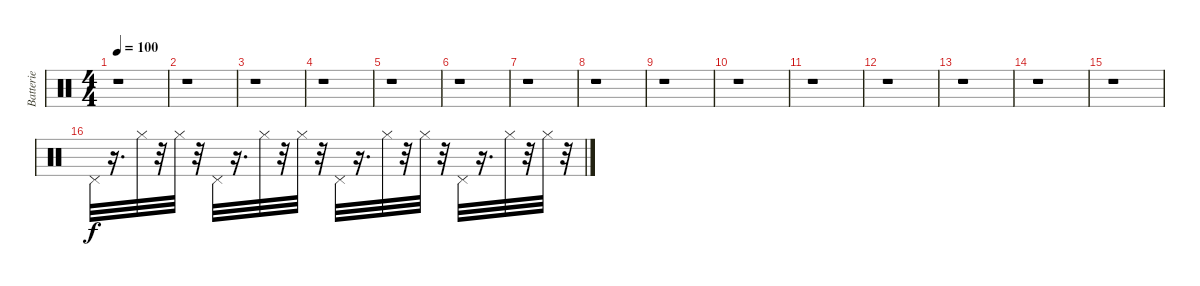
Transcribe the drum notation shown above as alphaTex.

\track ("Batterie" "Batterie") {instrument percussion}
\staff {score}
\articulation defaults
\ts (4 4)
\tempo 100
\clef neutral
\ks c
r.1{dy f} |
r.1 |
r.1 |
r.1 |
r.1 |
r.1 |
r.1 |
r.1 |
r.1 |
r.1 |
r.1 |
r.1 |
r.1 |
r.1 |
r.1 |
"Pedal Hi-Hat (hit)".32 r.16{d} "Hi-Hat (closed)".32 r.32 "Hi-Hat (closed)".32 r.32 "Pedal Hi-Hat (hit)".32 r.16{d} "Hi-Hat (closed)".32 r.32 "Hi-Hat (closed)".32 r.32 "Pedal Hi-Hat (hit)".32 r.16{d} "Hi-Hat (closed)".32 r.32 "Hi-Hat (closed)".32 r.32 "Pedal Hi-Hat (hit)".32 r.16{d} "Hi-Hat (closed)".32 r.32 "Hi-Hat (closed)".32 r.32
